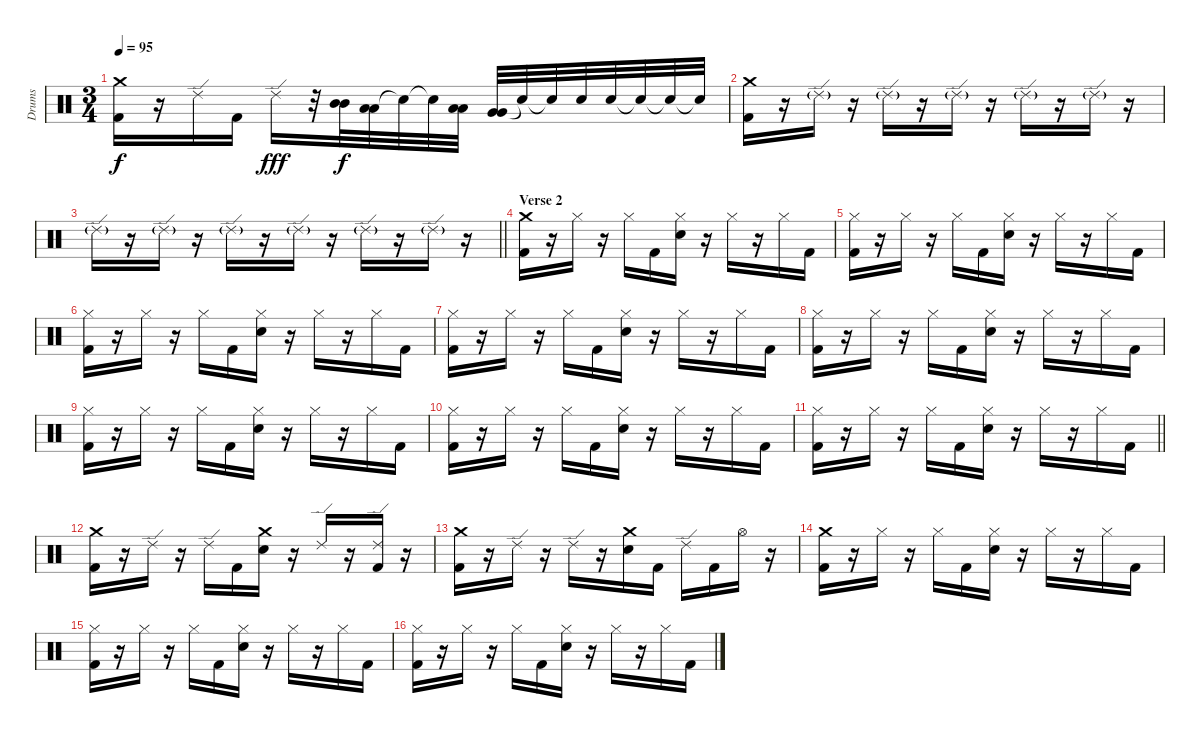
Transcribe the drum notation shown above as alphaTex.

\track ("Drums" "Drums") {instrument percussion}
\staff {score}
\articulation defaults
\ts (3 4)
\tempo 95
\clef neutral
\ks c
("Crash medium (hit)" "Kick (hit) 2").16{dy f} r.16 "Ride (edge) 2".16 "Kick (hit) 2".16 "Ride (edge) 2".16{dy fff} r.32 ("Mid Tom (hit)" "Mid Tom (hit)").32{dy f} ("Low Tom (hit)" "Low Tom (hit)").32 "Snare (hit)"{t}.32 "Snare (hit)"{t}.32 ("Low Tom (hit)" "Low Tom (hit)").32 ("Very Low Tom (hit)" "Very Low Tom (hit)").32 "Snare (hit)"{t}.32 "Snare (hit)"{t}.32 "Electric Snare (hit)".32 "Electric Snare (hit)".32 "Snare (hit)"{t}.32 "Snare (hit)"{t}.32 "Snare (hit)"{t}.32 |
("Crash medium (hit)" "Kick (hit) 2").16 r.16 "Ride (edge) 2"{g}.16 r.16 "Ride (edge) 2"{g}.16 r.16 "Ride (edge) 2"{g}.16 r.16 "Ride (edge) 2"{g}.16 r.16 "Ride (edge) 2"{g}.16 r.16 |
\barLineRight lightlight "Ride (edge) 2"{g}.16
r.16 "Ride (edge) 2"{g}.16 r.16 "Ride (edge) 2"{g}.16 r.16 "Ride (edge) 2"{g}.16 r.16 "Ride (edge) 2"{g}.16 r.16 "Ride (edge) 2"{g}.16 r.16 |
\section ("" "Verse 2")
("Crash medium (hit)" "Kick (hit) 2").16 r.16 "Hi-Hat (closed)".16 r.16 "Hi-Hat (closed)".16 "Kick (hit) 2".16 ("Hi-Hat (closed)" "Electric Snare (hit)").16 r.16 "Hi-Hat (closed)".16 r.16 "Hi-Hat (closed)".16 "Kick (hit) 2".16 |
("Hi-Hat (closed)" "Kick (hit) 2").16 r.16 "Hi-Hat (closed)".16 r.16 "Hi-Hat (closed)".16 "Kick (hit) 2".16 ("Hi-Hat (closed)" "Electric Snare (hit)").16 r.16 "Hi-Hat (closed)".16 r.16 "Hi-Hat (closed)".16 "Kick (hit) 2".16 |
("Hi-Hat (closed)" "Kick (hit) 2").16 r.16 "Hi-Hat (closed)".16 r.16 "Hi-Hat (closed)".16 "Kick (hit) 2".16 ("Hi-Hat (closed)" "Electric Snare (hit)").16 r.16 "Hi-Hat (closed)".16 r.16 "Hi-Hat (closed)".16 "Kick (hit) 2".16 |
("Hi-Hat (closed)" "Kick (hit) 2").16 r.16 "Hi-Hat (closed)".16 r.16 "Hi-Hat (closed)".16 "Kick (hit) 2".16 ("Hi-Hat (closed)" "Electric Snare (hit)").16 r.16 "Hi-Hat (closed)".16 r.16 "Hi-Hat (closed)".16 "Kick (hit) 2".16 |
("Hi-Hat (closed)" "Kick (hit) 2").16 r.16 "Hi-Hat (closed)".16 r.16 "Hi-Hat (closed)".16 "Kick (hit) 2".16 ("Hi-Hat (closed)" "Electric Snare (hit)").16 r.16 "Hi-Hat (closed)".16 r.16 "Hi-Hat (closed)".16 "Kick (hit) 2".16 |
("Hi-Hat (closed)" "Kick (hit) 2").16 r.16 "Hi-Hat (closed)".16 r.16 "Hi-Hat (closed)".16 "Kick (hit) 2".16 ("Hi-Hat (closed)" "Electric Snare (hit)").16 r.16 "Hi-Hat (closed)".16 r.16 "Hi-Hat (closed)".16 "Kick (hit) 2".16 |
("Hi-Hat (closed)" "Kick (hit) 2").16 r.16 "Hi-Hat (closed)".16 r.16 "Hi-Hat (closed)".16 "Kick (hit) 2".16 ("Hi-Hat (closed)" "Electric Snare (hit)").16 r.16 "Hi-Hat (closed)".16 r.16 "Hi-Hat (closed)".16 "Kick (hit) 2".16 |
\barLineRight lightlight
("Hi-Hat (closed)" "Kick (hit) 2").16 r.16 "Hi-Hat (closed)".16 r.16 "Hi-Hat (closed)".16 "Kick (hit) 2".16 ("Hi-Hat (closed)" "Electric Snare (hit)").16 r.16 "Hi-Hat (closed)".16 r.16 "Hi-Hat (closed)".16 "Kick (hit) 2".16 |
\section ("" "")
("Crash medium (hit)" "Kick (hit) 2").16 r.16 "Ride (edge) 2".16 r.16 "Ride (edge) 2".16 "Kick (hit) 2".16 ("Crash medium (hit)" "Electric Snare (hit)").16 r.16 "Ride (edge) 2".16 r.16 ("Ride (edge) 2" "Kick (hit) 2").16 r.16 |
("Crash medium (hit)" "Kick (hit) 2").16 r.16 "Ride (edge) 2".16 r.16 "Ride (edge) 2".16 r.16 ("Crash medium (hit)" "Electric Snare (hit)").16 "Kick (hit) 2".16 "Ride (edge) 2".16 "Kick (hit) 2".16 "Hi-Hat (open)".16 r.16 |
("Crash medium (hit)" "Kick (hit) 2").16 r.16 "Hi-Hat (closed)".16 r.16 "Hi-Hat (closed)".16 "Kick (hit) 2".16 ("Hi-Hat (closed)" "Electric Snare (hit)").16 r.16 "Hi-Hat (closed)".16 r.16 "Hi-Hat (closed)".16 "Kick (hit) 2".16 |
("Hi-Hat (closed)" "Kick (hit) 2").16 r.16 "Hi-Hat (closed)".16 r.16 "Hi-Hat (closed)".16 "Kick (hit) 2".16 ("Hi-Hat (closed)" "Electric Snare (hit)").16 r.16 "Hi-Hat (closed)".16 r.16 "Hi-Hat (closed)".16 "Kick (hit) 2".16 |
("Hi-Hat (closed)" "Kick (hit) 2").16 r.16 "Hi-Hat (closed)".16 r.16 "Hi-Hat (closed)".16 "Kick (hit) 2".16 ("Hi-Hat (closed)" "Electric Snare (hit)").16 r.16 "Hi-Hat (closed)".16 r.16 "Hi-Hat (closed)".16 "Kick (hit) 2".16
